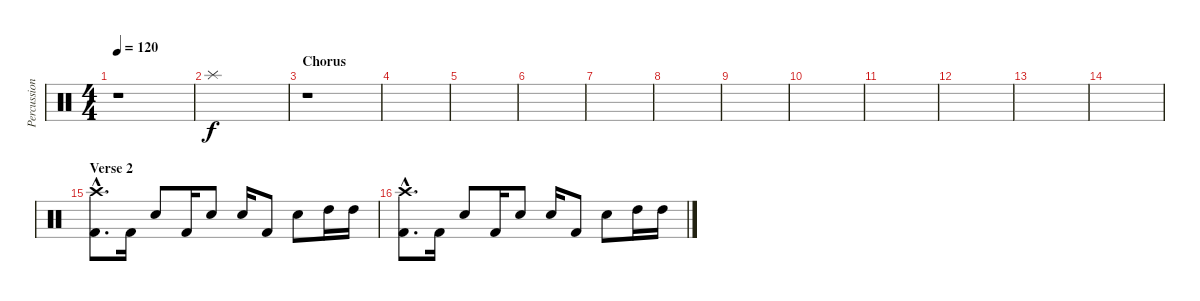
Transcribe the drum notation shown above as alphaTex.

\track ("Percussion" "Percussion") {instrument percussion}
\staff {score}
\articulation defaults
\ts (4 4)
\tempo 120
\clef neutral
\ks c
r.1{dy f} |
"Splash (hit)".1{volume 10} |
\section ("" "Chorus")
r.1 |
|
|
|
|
|
|
|
|
|
|
|
\section ("" "Verse 2")
("Crash high (hit)"{hac} "Kick (hit) 2"{hac}).8{d} "Kick (hit) 2".16 "Electric Snare (hit)".8 "Kick (hit) 2".16 "Electric Snare (hit)".8 "Electric Snare (hit)".16 "Kick (hit) 2".8 "Electric Snare (hit)".8 "High Tom (hit)".16 "High Tom (hit)".16 |
("Crash high (hit)"{hac} "Kick (hit) 2"{hac}).8{d} "Kick (hit) 2".16 "Electric Snare (hit)".8 "Kick (hit) 2".16 "Electric Snare (hit)".8 "Electric Snare (hit)".16 "Kick (hit) 2".8 "Electric Snare (hit)".8 "High Tom (hit)".16 "High Tom (hit)".16
